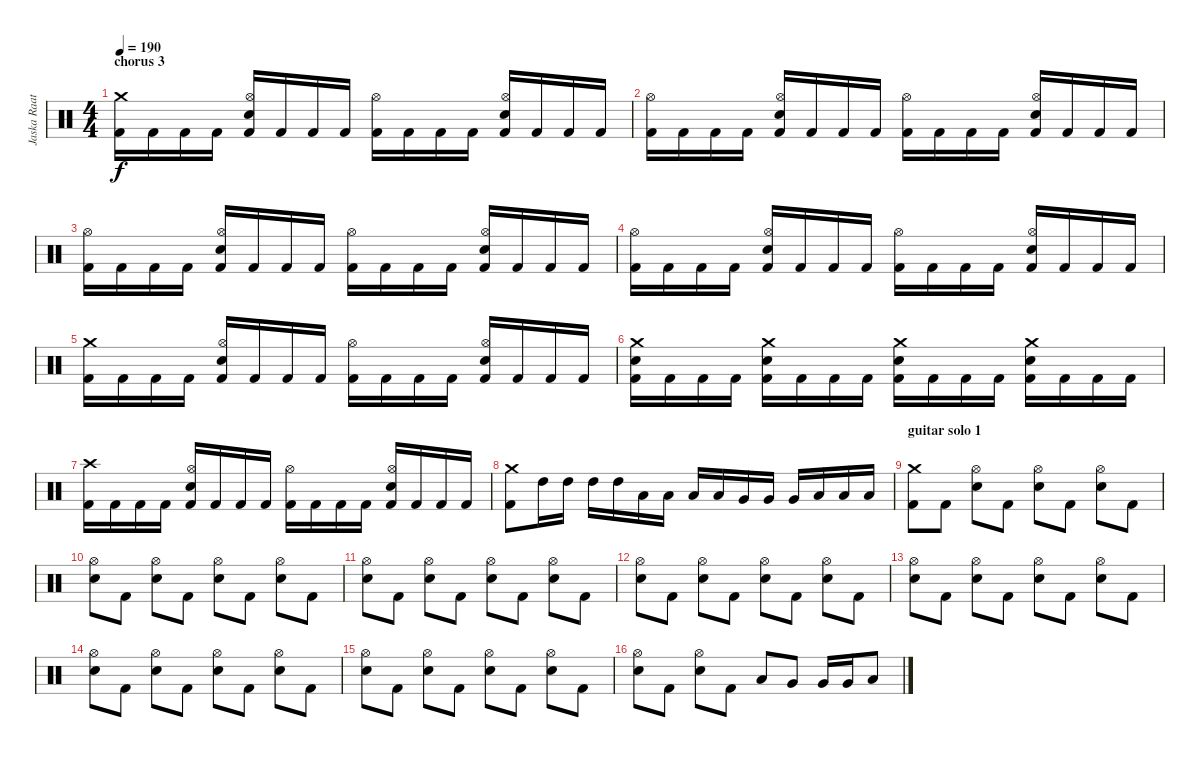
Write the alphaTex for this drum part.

\track ("Jaska Raatikainen" "Jaska Raat") {instrument percussion}
\staff {score}
\articulation defaults
\ts (4 4)
\section ("" "chorus 3")
\tempo 190
\clef neutral
\ks c
("Crash medium (hit)" "Kick (hit) 2").16{dy f} "Kick (hit) 2".16 "Kick (hit) 2".16 "Kick (hit) 2".16 ("Hi-Hat (open)" "Snare (hit) 2" "Kick (hit) 2").16 "Kick (hit) 2".16 "Kick (hit) 2".16 "Kick (hit) 2".16 ("Hi-Hat (open)" "Kick (hit) 2").16 "Kick (hit) 2".16 "Kick (hit) 2".16 "Kick (hit) 2".16 ("Hi-Hat (open)" "Snare (hit) 2" "Kick (hit) 2").16 "Kick (hit) 2".16 "Kick (hit) 2".16 "Kick (hit) 2".16 |
("Hi-Hat (open)" "Kick (hit) 2").16 "Kick (hit) 2".16 "Kick (hit) 2".16 "Kick (hit) 2".16 ("Hi-Hat (open)" "Snare (hit) 2" "Kick (hit) 2").16 "Kick (hit) 2".16 "Kick (hit) 2".16 "Kick (hit) 2".16 ("Hi-Hat (open)" "Kick (hit) 2").16 "Kick (hit) 2".16 "Kick (hit) 2".16 "Kick (hit) 2".16 ("Hi-Hat (open)" "Snare (hit) 2" "Kick (hit) 2").16 "Kick (hit) 2".16 "Kick (hit) 2".16 "Kick (hit) 2".16 |
("Hi-Hat (open)" "Kick (hit) 2").16 "Kick (hit) 2".16 "Kick (hit) 2".16 "Kick (hit) 2".16 ("Hi-Hat (open)" "Snare (hit) 2" "Kick (hit) 2").16 "Kick (hit) 2".16 "Kick (hit) 2".16 "Kick (hit) 2".16 ("Hi-Hat (open)" "Kick (hit) 2").16 "Kick (hit) 2".16 "Kick (hit) 2".16 "Kick (hit) 2".16 ("Hi-Hat (open)" "Snare (hit) 2" "Kick (hit) 2").16 "Kick (hit) 2".16 "Kick (hit) 2".16 "Kick (hit) 2".16 |
("Hi-Hat (open)" "Kick (hit) 2").16 "Kick (hit) 2".16 "Kick (hit) 2".16 "Kick (hit) 2".16 ("Hi-Hat (open)" "Snare (hit) 2" "Kick (hit) 2").16 "Kick (hit) 2".16 "Kick (hit) 2".16 "Kick (hit) 2".16 ("Hi-Hat (open)" "Kick (hit) 2").16 "Kick (hit) 2".16 "Kick (hit) 2".16 "Kick (hit) 2".16 ("Hi-Hat (open)" "Snare (hit) 2" "Kick (hit) 2").16 "Kick (hit) 2".16 "Kick (hit) 2".16 "Kick (hit) 2".16 |
("Crash medium (hit)" "Kick (hit) 2").16 "Kick (hit) 2".16 "Kick (hit) 2".16 "Kick (hit) 2".16 ("Hi-Hat (open)" "Snare (hit) 2" "Kick (hit) 2").16 "Kick (hit) 2".16 "Kick (hit) 2".16 "Kick (hit) 2".16 ("Hi-Hat (open)" "Kick (hit) 2").16 "Kick (hit) 2".16 "Kick (hit) 2".16 "Kick (hit) 2".16 ("Hi-Hat (open)" "Snare (hit) 2" "Kick (hit) 2").16 "Kick (hit) 2".16 "Kick (hit) 2".16 "Kick (hit) 2".16 |
("Crash medium (hit)" "Snare (hit) 2" "Kick (hit) 2").16 "Kick (hit) 2".16 "Kick (hit) 2".16 "Kick (hit) 2".16 ("Crash medium (hit)" "Snare (hit) 2" "Kick (hit) 2").16 "Kick (hit) 2".16 "Kick (hit) 2".16 "Kick (hit) 2".16 ("Crash medium (hit)" "Snare (hit) 2" "Kick (hit) 2").16 "Kick (hit) 2".16 "Kick (hit) 2".16 "Kick (hit) 2".16 ("Crash medium (hit)" "Snare (hit) 2" "Kick (hit) 2").16 "Kick (hit) 2".16 "Kick (hit) 2".16 "Kick (hit) 2".16 |
("Crash high (hit)" "Kick (hit) 2").16 "Kick (hit) 2".16 "Kick (hit) 2".16 "Kick (hit) 2".16 ("Hi-Hat (open)" "Snare (hit) 2" "Kick (hit) 2").16 "Kick (hit) 2".16 "Kick (hit) 2".16 "Kick (hit) 2".16 ("Hi-Hat (open)" "Kick (hit) 2").16 "Kick (hit) 2".16 "Kick (hit) 2".16 "Kick (hit) 2".16 ("Hi-Hat (open)" "Snare (hit) 2" "Kick (hit) 2").16 "Kick (hit) 2".16 "Kick (hit) 2".16 "Kick (hit) 2".16 |
("Crash medium (hit)" "Kick (hit) 2").8 "High Tom (hit)".16 "High Tom (hit)".16 "High Tom (hit)".16 "High Tom (hit)".16 "Low Tom (hit)".16 "Low Tom (hit)".16 "Low Tom (hit)".16 "Low Tom (hit)".16 "Very Low Tom (hit)".16 "Very Low Tom (hit)".16 "Very Low Tom (hit)".16 "Low Floor Tom (hit)".16 "Low Floor Tom (hit)".16 "Low Floor Tom (hit)".16 |
\section ("" "guitar solo 1")
("Crash medium (hit)" "Kick (hit) 2").8 "Kick (hit) 2".8 ("Hi-Hat (open)" "Snare (hit) 2").8 "Kick (hit) 2".8 ("Hi-Hat (open)" "Snare (hit) 2").8 "Kick (hit) 2".8 ("Hi-Hat (open)" "Snare (hit) 2").8 "Kick (hit) 2".8 |
("Hi-Hat (open)" "Snare (hit) 2").8 "Kick (hit) 2".8 ("Hi-Hat (open)" "Snare (hit) 2").8 "Kick (hit) 2".8 ("Hi-Hat (open)" "Snare (hit) 2").8 "Kick (hit) 2".8 ("Hi-Hat (open)" "Snare (hit) 2").8 "Kick (hit) 2".8 |
("Hi-Hat (open)" "Snare (hit) 2").8 "Kick (hit) 2".8 ("Hi-Hat (open)" "Snare (hit) 2").8 "Kick (hit) 2".8 ("Hi-Hat (open)" "Snare (hit) 2").8 "Kick (hit) 2".8 ("Hi-Hat (open)" "Snare (hit) 2").8 "Kick (hit) 2".8 |
("Hi-Hat (open)" "Snare (hit) 2").8 "Kick (hit) 2".8 ("Hi-Hat (open)" "Snare (hit) 2").8 "Kick (hit) 2".8 ("Hi-Hat (open)" "Snare (hit) 2").8 "Kick (hit) 2".8 ("Hi-Hat (open)" "Snare (hit) 2").8 "Kick (hit) 2".8 |
("Hi-Hat (open)" "Snare (hit) 2").8 "Kick (hit) 2".8 ("Hi-Hat (open)" "Snare (hit) 2").8 "Kick (hit) 2".8 ("Hi-Hat (open)" "Snare (hit) 2").8 "Kick (hit) 2".8 ("Hi-Hat (open)" "Snare (hit) 2").8 "Kick (hit) 2".8 |
("Hi-Hat (open)" "Snare (hit) 2").8 "Kick (hit) 2".8 ("Hi-Hat (open)" "Snare (hit) 2").8 "Kick (hit) 2".8 ("Hi-Hat (open)" "Snare (hit) 2").8 "Kick (hit) 2".8 ("Hi-Hat (open)" "Snare (hit) 2").8 "Kick (hit) 2".8 |
("Hi-Hat (open)" "Snare (hit) 2").8 "Kick (hit) 2".8 ("Hi-Hat (open)" "Snare (hit) 2").8 "Kick (hit) 2".8 ("Hi-Hat (open)" "Snare (hit) 2").8 "Kick (hit) 2".8 ("Hi-Hat (open)" "Snare (hit) 2").8 "Kick (hit) 2".8 |
("Hi-Hat (open)" "Snare (hit) 2").8 "Kick (hit) 2".8 ("Hi-Hat (open)" "Snare (hit) 2").8 "Kick (hit) 2".8 "Low Tom (hit)".8 "Very Low Tom (hit)".8 "Very Low Tom (hit)".16 "Very Low Tom (hit)".16 "Low Floor Tom (hit)".8
